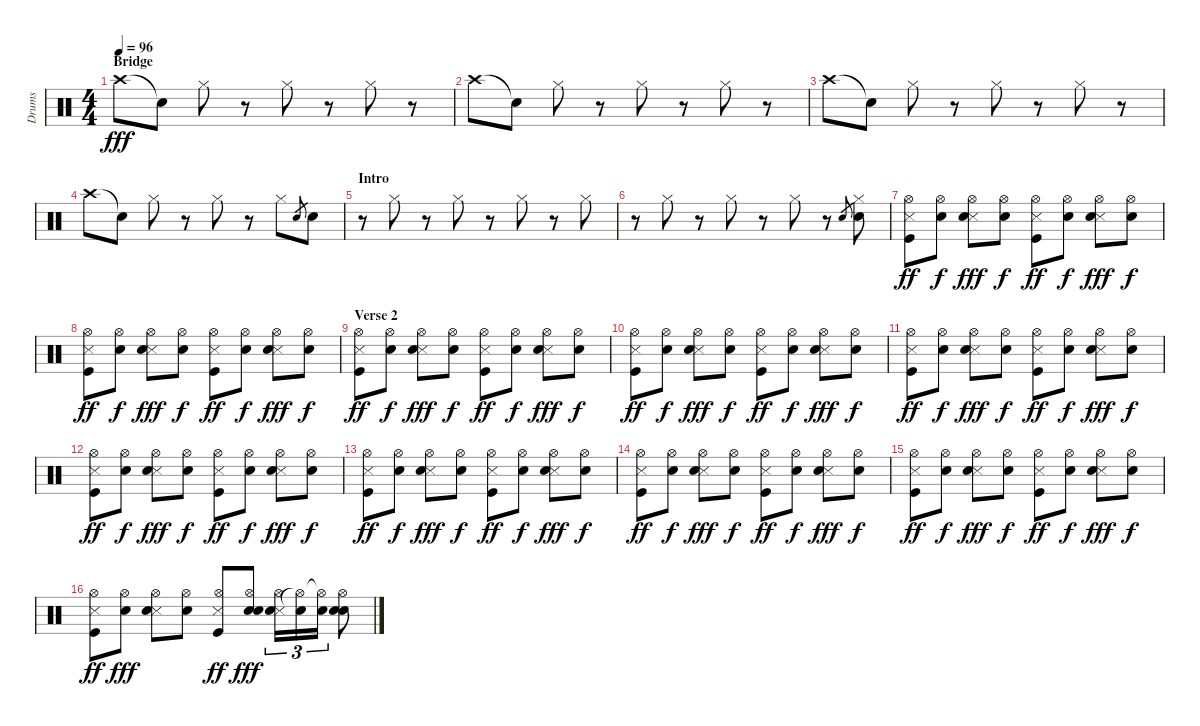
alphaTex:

\track ("Drums" "Drums") {instrument percussion}
\staff {score}
\articulation defaults
\ts (4 4)
\section ("" "Bridge")
\tempo 96
\clef neutral
\ks c "Crash high (hit)".8{dy fff} "Snare (hit)"{t}.8 "Hi-Hat (closed)".8
r.8 "Hi-Hat (closed)".8 r.8 "Hi-Hat (closed)".8 r.8 |
"Crash high (hit)".8 "Snare (hit)"{t}.8 "Hi-Hat (closed)".8 r.8 "Hi-Hat (closed)".8 r.8 "Hi-Hat (closed)".8 r.8 |
"Crash high (hit)".8 "Snare (hit)"{t}.8 "Hi-Hat (closed)".8 r.8 "Hi-Hat (closed)".8 r.8 "Hi-Hat (closed)".8 r.8 |
"Crash high (hit)".8 "Snare (hit)"{t}.8 "Hi-Hat (closed)".8 r.8 "Hi-Hat (closed)".8 r.8 "Hi-Hat (closed)".8 "Electric Snare (hit)".8{gr} "Electric Snare (hit)".8 |
\section ("" "Intro")
r.8 "Hi-Hat (closed)".8 r.8 "Hi-Hat (closed)".8 r.8 "Hi-Hat (closed)".8 r.8 "Hi-Hat (closed)".8 |
r.8 "Hi-Hat (closed)".8 r.8 "Hi-Hat (closed)".8 r.8 "Hi-Hat (closed)".8 r.8 "Electric Snare (hit)".8{gr} ("Hi-Hat (closed)" "Snare (hit) 2").8 |
("Snare (side stick) 3" "Hi-Hat (open)" "Kick (hit)").8{dy ff} ("Hand Clap (hit)" "Hi-Hat (open)").8{dy f} ("Snare (side stick) 3" "Hi-Hat (open)" "Snare (hit) 2").8{dy fff} ("Hand Clap (hit)" "Hi-Hat (open)").8{dy f} ("Snare (side stick) 3" "Hi-Hat (open)" "Kick (hit)").8{dy ff} ("Hand Clap (hit)" "Hi-Hat (open)").8{dy f} ("Snare (side stick) 3" "Hi-Hat (open)" "Snare (hit) 2").8{dy fff} ("Hand Clap (hit)" "Hi-Hat (open)").8{dy f} |
("Snare (side stick) 3" "Hi-Hat (open)" "Kick (hit)").8{dy ff} ("Hand Clap (hit)" "Hi-Hat (open)").8{dy f} ("Snare (side stick) 3" "Hi-Hat (open)" "Snare (hit) 2").8{dy fff} ("Hand Clap (hit)" "Hi-Hat (open)").8{dy f} ("Snare (side stick) 3" "Hi-Hat (open)" "Kick (hit)").8{dy ff} ("Hand Clap (hit)" "Hi-Hat (open)").8{dy f} ("Snare (side stick) 3" "Hi-Hat (open)" "Snare (hit) 2").8{dy fff} ("Hand Clap (hit)" "Hi-Hat (open)").8{dy f} |
\section ("" "Verse 2")
("Snare (side stick) 3" "Hi-Hat (open)" "Kick (hit)").8{dy ff} ("Hand Clap (hit)" "Hi-Hat (open)").8{dy f} ("Snare (side stick) 3" "Hi-Hat (open)" "Snare (hit) 2").8{dy fff} ("Hand Clap (hit)" "Hi-Hat (open)").8{dy f} ("Snare (side stick) 3" "Hi-Hat (open)" "Kick (hit)").8{dy ff} ("Hand Clap (hit)" "Hi-Hat (open)").8{dy f} ("Snare (side stick) 3" "Hi-Hat (open)" "Snare (hit) 2").8{dy fff} ("Hand Clap (hit)" "Hi-Hat (open)").8{dy f} |
("Snare (side stick) 3" "Hi-Hat (open)" "Kick (hit)").8{dy ff} ("Hand Clap (hit)" "Hi-Hat (open)").8{dy f} ("Snare (side stick) 3" "Hi-Hat (open)" "Snare (hit) 2").8{dy fff} ("Hand Clap (hit)" "Hi-Hat (open)").8{dy f} ("Snare (side stick) 3" "Hi-Hat (open)" "Kick (hit)").8{dy ff} ("Hand Clap (hit)" "Hi-Hat (open)").8{dy f} ("Snare (side stick) 3" "Hi-Hat (open)" "Snare (hit) 2").8{dy fff} ("Hand Clap (hit)" "Hi-Hat (open)").8{dy f} |
("Snare (side stick) 3" "Hi-Hat (open)" "Kick (hit)").8{dy ff} ("Hand Clap (hit)" "Hi-Hat (open)").8{dy f} ("Snare (side stick) 3" "Hi-Hat (open)" "Snare (hit) 2").8{dy fff} ("Hand Clap (hit)" "Hi-Hat (open)").8{dy f} ("Snare (side stick) 3" "Hi-Hat (open)" "Kick (hit)").8{dy ff} ("Hand Clap (hit)" "Hi-Hat (open)").8{dy f} ("Snare (side stick) 3" "Hi-Hat (open)" "Snare (hit) 2").8{dy fff} ("Hand Clap (hit)" "Hi-Hat (open)").8{dy f} |
("Snare (side stick) 3" "Hi-Hat (open)" "Kick (hit)").8{dy ff} ("Hand Clap (hit)" "Hi-Hat (open)").8{dy f} ("Snare (side stick) 3" "Hi-Hat (open)" "Snare (hit) 2").8{dy fff} ("Hand Clap (hit)" "Hi-Hat (open)").8{dy f} ("Snare (side stick) 3" "Hi-Hat (open)" "Kick (hit)").8{dy ff} ("Hand Clap (hit)" "Hi-Hat (open)").8{dy f} ("Snare (side stick) 3" "Hi-Hat (open)" "Snare (hit) 2").8{dy fff} ("Hand Clap (hit)" "Hi-Hat (open)").8{dy f} |
("Snare (side stick) 3" "Hi-Hat (open)" "Kick (hit)").8{dy ff} ("Hand Clap (hit)" "Hi-Hat (open)").8{dy f} ("Snare (side stick) 3" "Hi-Hat (open)" "Snare (hit) 2").8{dy fff} ("Hand Clap (hit)" "Hi-Hat (open)").8{dy f} ("Snare (side stick) 3" "Hi-Hat (open)" "Kick (hit)").8{dy ff} ("Hand Clap (hit)" "Hi-Hat (open)").8{dy f} ("Snare (side stick) 3" "Hi-Hat (open)" "Snare (hit) 2").8{dy fff} ("Hand Clap (hit)" "Hi-Hat (open)").8{dy f} |
("Snare (side stick) 3" "Hi-Hat (open)" "Kick (hit)").8{dy ff} ("Hand Clap (hit)" "Hi-Hat (open)").8{dy f} ("Snare (side stick) 3" "Hi-Hat (open)" "Snare (hit) 2").8{dy fff} ("Hand Clap (hit)" "Hi-Hat (open)").8{dy f} ("Snare (side stick) 3" "Hi-Hat (open)" "Kick (hit)").8{dy ff} ("Hand Clap (hit)" "Hi-Hat (open)").8{dy f} ("Snare (side stick) 3" "Hi-Hat (open)" "Snare (hit) 2").8{dy fff} ("Hand Clap (hit)" "Hi-Hat (open)").8{dy f} |
("Snare (side stick) 3" "Hi-Hat (open)" "Kick (hit)").8{dy ff} ("Hand Clap (hit)" "Hi-Hat (open)").8{dy f} ("Snare (side stick) 3" "Hi-Hat (open)" "Snare (hit) 2").8{dy fff} ("Hand Clap (hit)" "Hi-Hat (open)").8{dy f} ("Snare (side stick) 3" "Hi-Hat (open)" "Kick (hit)").8{dy ff} ("Hand Clap (hit)" "Hi-Hat (open)").8{dy f} ("Snare (side stick) 3" "Hi-Hat (open)" "Snare (hit) 2").8{dy fff} ("Hand Clap (hit)" "Hi-Hat (open)").8{dy f} |
("Snare (side stick) 3" "Hi-Hat (open)" "Kick (hit)").8{dy ff} ("Hand Clap (hit)" "Hi-Hat (open)").8{dy fff} ("Snare (side stick) 3" "Hi-Hat (open)" "Snare (hit) 2").8 ("Hand Clap (hit)" "Hi-Hat (open)").8 ("Snare (side stick) 3" "Hi-Hat (open)" "Kick (hit)").8{dy ff} ("Hand Clap (hit)" "Hi-Hat (open)" "Snare (hit) 2").8{dy fff} ("Snare (side stick) 3" "Hi-Hat (open)" "Snare (hit) 2").16{tu (3 2)} ("Hi-Hat (open)"{t} "Snare (hit) 2").16{tu (3 2)} ("Hi-Hat (open)"{t} "Snare (hit) 2").16{tu (3 2)} ("Hand Clap (hit)" "Hi-Hat (open)" "Snare (hit) 2").8
